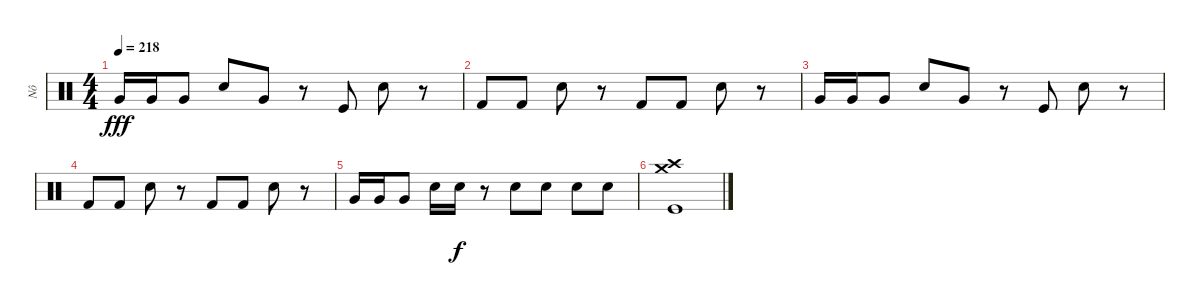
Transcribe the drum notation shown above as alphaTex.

\track ("Nô" "Nô") {instrument percussion}
\staff {score}
\articulation defaults
\ts (4 4)
\tempo 218
\clef neutral
\ks c "Very Low Tom (hit)".16{dy fff} "Very Low Tom (hit)".16 "Very Low Tom (hit)".8 "Electric Snare (hit)".8 "Very Low Tom (hit)".8
r.8 "Kick (hit)".8 "Electric Snare (hit)".8 r.8 |
"Kick (hit) 2".8 "Kick (hit) 2".8 "Electric Snare (hit)".8 r.8 "Kick (hit) 2".8 "Kick (hit) 2".8 "Electric Snare (hit)".8 r.8 |
"Very Low Tom (hit)".16 "Very Low Tom (hit)".16 "Very Low Tom (hit)".8 "Electric Snare (hit)".8 "Very Low Tom (hit)".8 r.8 "Kick (hit)".8 "Electric Snare (hit)".8 r.8 |
"Kick (hit) 2".8 "Kick (hit) 2".8 "Electric Snare (hit)".8 r.8 "Kick (hit) 2".8 "Kick (hit) 2".8 "Electric Snare (hit)".8 r.8 |
"Very Low Tom (hit)".16 "Very Low Tom (hit)".16 "Very Low Tom (hit)".8 "Electric Snare (hit)".16 "Electric Snare (hit)".16{dy f} r.8 "Electric Snare (hit)".8 "Electric Snare (hit)".8 "Electric Snare (hit)".8 "Electric Snare (hit)".8 |
("Crash medium (hit)" "Crash high (hit)" "Kick (hit)").1
